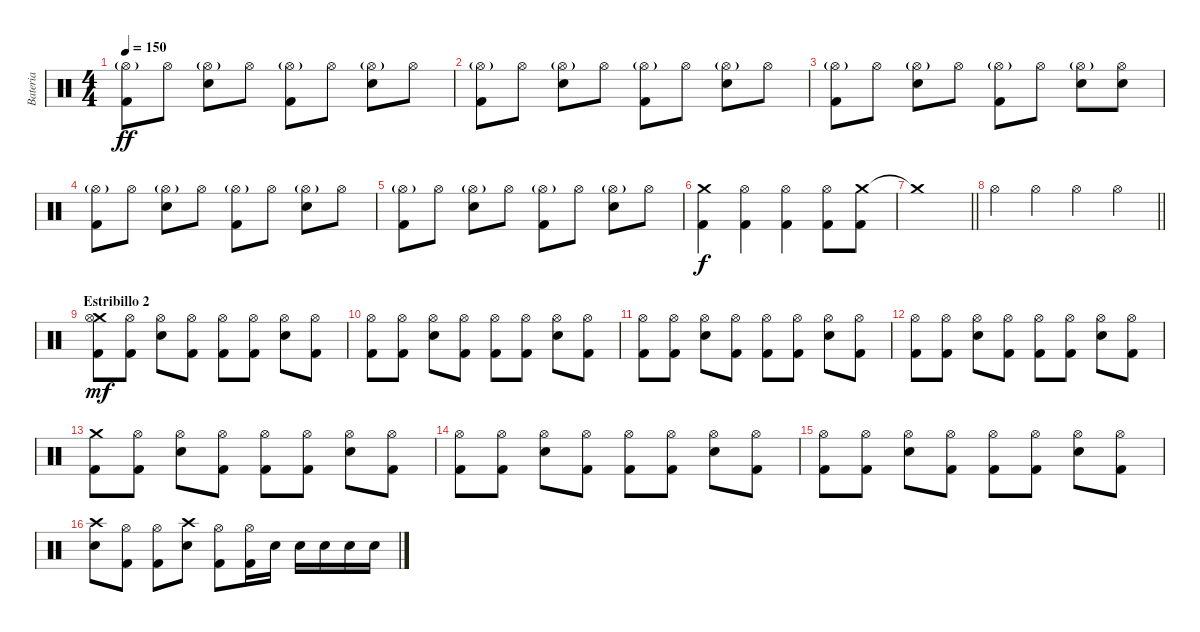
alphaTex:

\track ("Bateria" "Bateria") {instrument percussion}
\staff {score}
\articulation defaults
\ts (4 4)
\tempo 150
\clef neutral
\ks c
("Hi-Hat (open)"{g} "Kick (hit) 2").8{dy ff} "Hi-Hat (open)".8 ("Hi-Hat (open)"{g} "Snare (hit) 2").8 "Hi-Hat (open)".8 ("Hi-Hat (open)"{g} "Kick (hit) 2").8 "Hi-Hat (open)".8 ("Hi-Hat (open)"{g} "Snare (hit) 2").8 "Hi-Hat (open)".8 |
("Hi-Hat (open)"{g} "Kick (hit) 2").8 "Hi-Hat (open)".8 ("Hi-Hat (open)"{g} "Snare (hit) 2").8 "Hi-Hat (open)".8 ("Hi-Hat (open)"{g} "Kick (hit) 2").8 "Hi-Hat (open)".8 ("Hi-Hat (open)"{g} "Snare (hit) 2").8 "Hi-Hat (open)".8 |
("Hi-Hat (open)"{g} "Kick (hit) 2").8 "Hi-Hat (open)".8 ("Hi-Hat (open)"{g} "Snare (hit) 2").8 "Hi-Hat (open)".8 ("Hi-Hat (open)"{g} "Kick (hit) 2").8 "Hi-Hat (open)".8 ("Hi-Hat (open)"{g} "Snare (hit) 2").8 ("Hi-Hat (open)" "Snare (hit) 2").8 |
("Hi-Hat (open)"{g} "Kick (hit) 2").8 "Hi-Hat (open)".8 ("Hi-Hat (open)"{g} "Snare (hit) 2").8 "Hi-Hat (open)".8 ("Hi-Hat (open)"{g} "Kick (hit) 2").8 "Hi-Hat (open)".8 ("Hi-Hat (open)"{g} "Snare (hit) 2").8 "Hi-Hat (open)".8 |
("Hi-Hat (open)"{g} "Kick (hit) 2").8 "Hi-Hat (open)".8 ("Hi-Hat (open)"{g} "Snare (hit) 2").8 "Hi-Hat (open)".8 ("Hi-Hat (open)"{g} "Kick (hit) 2").8 "Hi-Hat (open)".8 ("Hi-Hat (open)"{g} "Snare (hit) 2").8 "Hi-Hat (open)".8 |
("Crash medium (hit)" "Kick (hit) 2").4{dy f} ("Hi-Hat (open)" "Kick (hit) 2").4 ("Hi-Hat (open)" "Kick (hit) 2").4 ("Hi-Hat (open)" "Kick (hit) 2").8 ("Crash medium (hit)" "Kick (hit) 2").8 |
\barLineRight lightlight "Crash medium (hit)"{t}.1
|
\barLineRight lightlight "Hi-Hat (open)".4 "Hi-Hat (open)".4 "Hi-Hat (open)".4 "Hi-Hat (open)".4
|
\section ("" "Estribillo 2")
("Crash medium (hit)" "Hi-Hat (open)" "Kick (hit) 2").8{dy mf} ("Hi-Hat (open)" "Kick (hit) 2").8 ("Hi-Hat (open)" "Snare (hit) 2").8 ("Hi-Hat (open)" "Kick (hit) 2").8 ("Hi-Hat (open)" "Kick (hit) 2").8 ("Hi-Hat (open)" "Kick (hit) 2").8 ("Hi-Hat (open)" "Snare (hit) 2").8 ("Hi-Hat (open)" "Kick (hit) 2").8 |
("Hi-Hat (open)" "Kick (hit) 2").8 ("Hi-Hat (open)" "Kick (hit) 2").8 ("Hi-Hat (open)" "Snare (hit) 2").8 ("Hi-Hat (open)" "Kick (hit) 2").8 ("Hi-Hat (open)" "Kick (hit) 2").8 ("Hi-Hat (open)" "Kick (hit) 2").8 ("Hi-Hat (open)" "Snare (hit) 2").8 ("Hi-Hat (open)" "Kick (hit) 2").8 |
("Hi-Hat (open)" "Kick (hit) 2").8 ("Hi-Hat (open)" "Kick (hit) 2").8 ("Hi-Hat (open)" "Snare (hit) 2").8 ("Hi-Hat (open)" "Kick (hit) 2").8 ("Hi-Hat (open)" "Kick (hit) 2").8 ("Hi-Hat (open)" "Kick (hit) 2").8 ("Hi-Hat (open)" "Snare (hit) 2").8 ("Hi-Hat (open)" "Kick (hit) 2").8 |
("Hi-Hat (open)" "Kick (hit) 2").8 ("Hi-Hat (open)" "Kick (hit) 2").8 ("Hi-Hat (open)" "Snare (hit) 2").8 ("Hi-Hat (open)" "Kick (hit) 2").8 ("Hi-Hat (open)" "Kick (hit) 2").8 ("Hi-Hat (open)" "Kick (hit) 2").8 ("Hi-Hat (open)" "Snare (hit) 2").8 ("Hi-Hat (open)" "Kick (hit) 2").8 |
("Crash medium (hit)" "Kick (hit) 2").8 ("Hi-Hat (open)" "Kick (hit) 2").8 ("Hi-Hat (open)" "Snare (hit) 2").8 ("Hi-Hat (open)" "Kick (hit) 2").8 ("Hi-Hat (open)" "Kick (hit) 2").8 ("Hi-Hat (open)" "Kick (hit) 2").8 ("Hi-Hat (open)" "Snare (hit) 2").8 ("Hi-Hat (open)" "Kick (hit) 2").8 |
("Hi-Hat (open)" "Kick (hit) 2").8 ("Hi-Hat (open)" "Kick (hit) 2").8 ("Hi-Hat (open)" "Snare (hit) 2").8 ("Hi-Hat (open)" "Kick (hit) 2").8 ("Hi-Hat (open)" "Kick (hit) 2").8 ("Hi-Hat (open)" "Kick (hit) 2").8 ("Hi-Hat (open)" "Snare (hit) 2").8 ("Hi-Hat (open)" "Kick (hit) 2").8 |
("Hi-Hat (open)" "Kick (hit) 2").8 ("Hi-Hat (open)" "Kick (hit) 2").8 ("Hi-Hat (open)" "Snare (hit) 2").8 ("Hi-Hat (open)" "Kick (hit) 2").8 ("Hi-Hat (open)" "Kick (hit) 2").8 ("Hi-Hat (open)" "Kick (hit) 2").8 ("Hi-Hat (open)" "Snare (hit) 2").8 ("Hi-Hat (open)" "Kick (hit) 2").8 |
("Crash high (hit)" "Snare (hit) 2").8 ("Hi-Hat (open)" "Kick (hit) 2").8 ("Hi-Hat (open)" "Kick (hit) 2").8 ("Crash high (hit)" "Snare (hit) 2").8 ("Hi-Hat (open)" "Kick (hit) 2").8 ("Hi-Hat (open)" "Kick (hit) 2").16 "Snare (hit) 2".16 "Snare (hit) 2".16 "Snare (hit) 2".16 "Snare (hit) 2".16 "Snare (hit) 2".16
